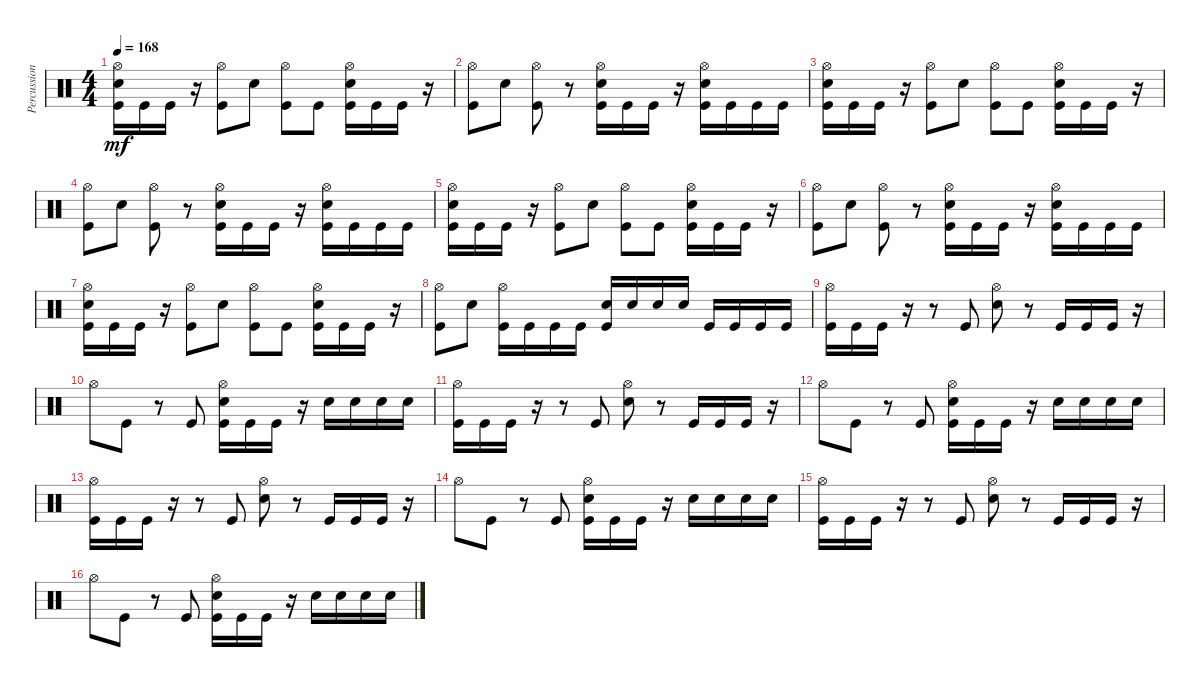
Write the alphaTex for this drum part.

\track ("Percussion" "Percussion") {instrument percussion}
\staff {score}
\articulation defaults
\ts (4 4)
\tempo 168
\clef neutral
\ks c
("Hi-Hat (open)" "Electric Snare (hit)" "Kick (hit)").16{dy mf} "Kick (hit)".16 "Kick (hit)".16 r.16 ("Hi-Hat (open)" "Kick (hit)").8 "Electric Snare (hit)".8 ("Hi-Hat (open)" "Kick (hit)").8 "Kick (hit)".8 ("Hi-Hat (open)" "Electric Snare (hit)" "Kick (hit)").16 "Kick (hit)".16 "Kick (hit)".16 r.16 |
("Hi-Hat (open)" "Kick (hit)").8 "Electric Snare (hit)".8 ("Hi-Hat (open)" "Kick (hit)").8 r.8 ("Hi-Hat (open)" "Electric Snare (hit)" "Kick (hit)").16 "Kick (hit)".16 "Kick (hit)".16 r.16 ("Hi-Hat (open)" "Electric Snare (hit)" "Kick (hit)").16 "Kick (hit)".16 "Kick (hit)".16 "Kick (hit)".16 |
("Hi-Hat (open)" "Electric Snare (hit)" "Kick (hit)").16 "Kick (hit)".16 "Kick (hit)".16 r.16 ("Hi-Hat (open)" "Kick (hit)").8 "Electric Snare (hit)".8 ("Hi-Hat (open)" "Kick (hit)").8 "Kick (hit)".8 ("Hi-Hat (open)" "Electric Snare (hit)" "Kick (hit)").16 "Kick (hit)".16 "Kick (hit)".16 r.16 |
("Hi-Hat (open)" "Kick (hit)").8 "Electric Snare (hit)".8 ("Hi-Hat (open)" "Kick (hit)").8 r.8 ("Hi-Hat (open)" "Electric Snare (hit)" "Kick (hit)").16 "Kick (hit)".16 "Kick (hit)".16 r.16 ("Hi-Hat (open)" "Electric Snare (hit)" "Kick (hit)").16 "Kick (hit)".16 "Kick (hit)".16 "Kick (hit)".16 |
("Hi-Hat (open)" "Electric Snare (hit)" "Kick (hit)").16 "Kick (hit)".16 "Kick (hit)".16 r.16 ("Hi-Hat (open)" "Kick (hit)").8 "Electric Snare (hit)".8 ("Hi-Hat (open)" "Kick (hit)").8 "Kick (hit)".8 ("Hi-Hat (open)" "Electric Snare (hit)" "Kick (hit)").16 "Kick (hit)".16 "Kick (hit)".16 r.16 |
("Hi-Hat (open)" "Kick (hit)").8 "Electric Snare (hit)".8 ("Hi-Hat (open)" "Kick (hit)").8 r.8 ("Hi-Hat (open)" "Electric Snare (hit)" "Kick (hit)").16 "Kick (hit)".16 "Kick (hit)".16 r.16 ("Hi-Hat (open)" "Electric Snare (hit)" "Kick (hit)").16 "Kick (hit)".16 "Kick (hit)".16 "Kick (hit)".16 |
("Hi-Hat (open)" "Electric Snare (hit)" "Kick (hit)").16 "Kick (hit)".16 "Kick (hit)".16 r.16 ("Hi-Hat (open)" "Kick (hit)").8 "Electric Snare (hit)".8 ("Hi-Hat (open)" "Kick (hit)").8 "Kick (hit)".8 ("Hi-Hat (open)" "Electric Snare (hit)" "Kick (hit)").16 "Kick (hit)".16 "Kick (hit)".16 r.16 |
("Hi-Hat (open)" "Kick (hit)").8 "Electric Snare (hit)".8 ("Hi-Hat (open)" "Kick (hit)").16 "Kick (hit)".16 "Kick (hit)".16 "Kick (hit)".16 ("Electric Snare (hit)" "Kick (hit)").16 "Electric Snare (hit)".16 "Electric Snare (hit)".16 "Electric Snare (hit)".16 "Kick (hit)".16 "Kick (hit)".16 "Kick (hit)".16 "Kick (hit)".16 |
("Hi-Hat (open)" "Kick (hit)").16 "Kick (hit)".16 "Kick (hit)".16 r.16 r.8 "Kick (hit)".8 ("Hi-Hat (open)" "Electric Snare (hit)").8 r.8 "Kick (hit)".16 "Kick (hit)".16 "Kick (hit)".16 r.16 |
"Hi-Hat (open)".8 "Kick (hit)".8 r.8 "Kick (hit)".8 ("Hi-Hat (open)" "Electric Snare (hit)" "Kick (hit)").16 "Kick (hit)".16 "Kick (hit)".16 r.16 "Electric Snare (hit)".16 "Electric Snare (hit)".16 "Electric Snare (hit)".16 "Electric Snare (hit)".16 |
("Hi-Hat (open)" "Kick (hit)").16 "Kick (hit)".16 "Kick (hit)".16 r.16 r.8 "Kick (hit)".8 ("Hi-Hat (open)" "Electric Snare (hit)").8 r.8 "Kick (hit)".16 "Kick (hit)".16 "Kick (hit)".16 r.16 |
"Hi-Hat (open)".8 "Kick (hit)".8 r.8 "Kick (hit)".8 ("Hi-Hat (open)" "Electric Snare (hit)" "Kick (hit)").16 "Kick (hit)".16 "Kick (hit)".16 r.16 "Electric Snare (hit)".16 "Electric Snare (hit)".16 "Electric Snare (hit)".16 "Electric Snare (hit)".16 |
("Hi-Hat (open)" "Kick (hit)").16 "Kick (hit)".16 "Kick (hit)".16 r.16 r.8 "Kick (hit)".8 ("Hi-Hat (open)" "Electric Snare (hit)").8 r.8 "Kick (hit)".16 "Kick (hit)".16 "Kick (hit)".16 r.16 |
"Hi-Hat (open)".8 "Kick (hit)".8 r.8 "Kick (hit)".8 ("Hi-Hat (open)" "Electric Snare (hit)" "Kick (hit)").16 "Kick (hit)".16 "Kick (hit)".16 r.16 "Electric Snare (hit)".16 "Electric Snare (hit)".16 "Electric Snare (hit)".16 "Electric Snare (hit)".16 |
("Hi-Hat (open)" "Kick (hit)").16 "Kick (hit)".16 "Kick (hit)".16 r.16 r.8 "Kick (hit)".8 ("Hi-Hat (open)" "Electric Snare (hit)").8 r.8 "Kick (hit)".16 "Kick (hit)".16 "Kick (hit)".16 r.16 |
"Hi-Hat (open)".8 "Kick (hit)".8 r.8 "Kick (hit)".8 ("Hi-Hat (open)" "Electric Snare (hit)" "Kick (hit)").16 "Kick (hit)".16 "Kick (hit)".16 r.16 "Electric Snare (hit)".16 "Electric Snare (hit)".16 "Electric Snare (hit)".16 "Electric Snare (hit)".16
